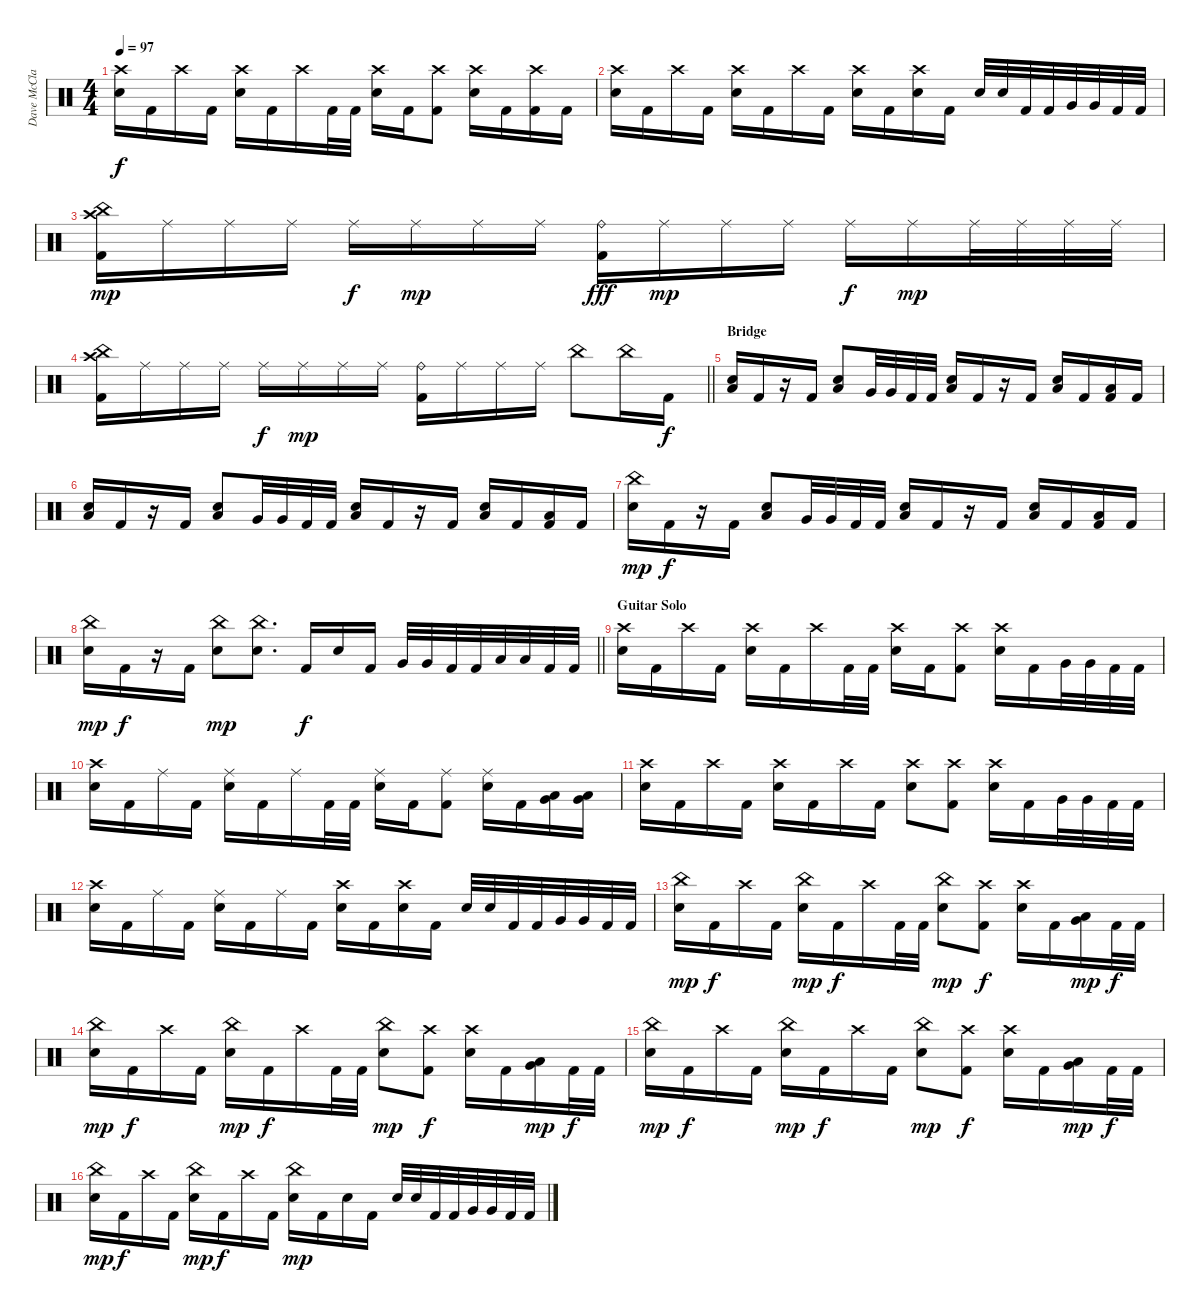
\track ("Dave McClain" "Dave McCla") {instrument percussion}
\staff {score}
\articulation defaults
\ts (4 4)
\tempo 97
\clef neutral
\ks c
("Crash high (hit)" "Snare (hit) 2").16{dy f} "Kick (hit) 2".16 "Crash high (hit)".16 "Kick (hit) 2".16 ("Crash high (hit)" "Snare (hit) 2").16 "Kick (hit) 2".16 "Crash high (hit)".16 "Kick (hit) 2".32 "Kick (hit) 2".32 ("Crash high (hit)" "Snare (hit) 2").16 "Kick (hit) 2".16 ("Crash high (hit)" "Kick (hit) 2").8 ("Crash high (hit)" "Snare (hit) 2").16 "Kick (hit) 2".16 ("Crash high (hit)" "Kick (hit) 2").16 "Kick (hit) 2".16 |
("Crash high (hit)" "Snare (hit) 2").16 "Kick (hit) 2".16 "Crash high (hit)".16 "Kick (hit) 2".16 ("Crash high (hit)" "Snare (hit) 2").16 "Kick (hit) 2".16 "Crash high (hit)".16 "Kick (hit) 2".16 ("Crash high (hit)" "Snare (hit) 2").16 "Kick (hit) 2".16 ("Crash high (hit)" "Snare (hit) 2").16 "Kick (hit) 2".16 "Snare (hit) 2".32 "Snare (hit) 2".32 "Kick (hit) 2".32 "Kick (hit) 2".32 "Very Low Tom (hit)".32 "Very Low Tom (hit)".32 "Kick (hit) 2".32 "Kick (hit) 2".32 |
("China (hit)" "Crash high (hit)" "Kick (hit) 2").16{dy mp} "Ride (middle)".16 "Ride (middle)".16 "Ride (middle)".16 "Ride (middle)".16{dy f} "Ride (middle)".16{dy mp} "Ride (middle)".16 "Ride (middle)".16 ("Ride (bell)" "Kick (hit) 2").16{dy fff} "Ride (middle)".16{dy mp} "Ride (middle)".16 "Ride (middle)".16 "Ride (middle)".16{dy f} "Ride (middle)".16{dy mp} "Ride (middle)".32 "Ride (middle)".32 "Ride (middle)".32 "Ride (middle)".32 |
\barLineRight lightlight
("China (hit)" "Crash high (hit)" "Kick (hit) 2").16 "Ride (middle)".16 "Ride (middle)".16 "Ride (middle)".16 "Ride (middle)".16{dy f} "Ride (middle)".16{dy mp} "Ride (middle)".16 "Ride (middle)".16 ("Ride (bell)" "Kick (hit) 2").16 "Ride (middle)".16 "Ride (middle)".16 "Ride (middle)".16 "China (hit)".8 "China (hit)".16 "Kick (hit) 2".16{dy f} |
\section ("" "Bridge")
("Snare (hit) 2" "Low Floor Tom (hit)").16 "Kick (hit) 2".16 r.16 "Kick (hit) 2".16 ("Snare (hit) 2" "Low Floor Tom (hit)").8 "Very Low Tom (hit)".32 "Very Low Tom (hit)".32 "Kick (hit) 2".32 "Kick (hit) 2".32 ("Snare (hit) 2" "Low Floor Tom (hit)").16 "Kick (hit) 2".16 r.16 "Kick (hit) 2".16 ("Snare (hit) 2" "Low Floor Tom (hit)").16 "Kick (hit) 2".16 ("Low Floor Tom (hit)" "Kick (hit) 2").16 "Kick (hit) 2".16 |
("Snare (hit) 2" "Low Floor Tom (hit)").16 "Kick (hit) 2".16 r.16 "Kick (hit) 2".16 ("Snare (hit) 2" "Low Floor Tom (hit)").8 "Very Low Tom (hit)".32 "Very Low Tom (hit)".32 "Kick (hit) 2".32 "Kick (hit) 2".32 ("Snare (hit) 2" "Low Floor Tom (hit)").16 "Kick (hit) 2".16 r.16 "Kick (hit) 2".16 ("Snare (hit) 2" "Low Floor Tom (hit)").16 "Kick (hit) 2".16 ("Low Floor Tom (hit)" "Kick (hit) 2").16 "Kick (hit) 2".16 |
("China (hit)" "Snare (hit) 2").16{dy mp} "Kick (hit) 2".16{dy f} r.16 "Kick (hit) 2".16 ("Snare (hit) 2" "Low Floor Tom (hit)").8 "Very Low Tom (hit)".32 "Very Low Tom (hit)".32 "Kick (hit) 2".32 "Kick (hit) 2".32 ("Snare (hit) 2" "Low Floor Tom (hit)").16 "Kick (hit) 2".16 r.16 "Kick (hit) 2".16 ("Snare (hit) 2" "Low Floor Tom (hit)").16 "Kick (hit) 2".16 ("Low Floor Tom (hit)" "Kick (hit) 2").16 "Kick (hit) 2".16 |
\barLineRight lightlight
("China (hit)" "Snare (hit) 2").16{dy mp} "Kick (hit) 2".16{dy f} r.16 "Kick (hit) 2".16 ("China (hit)" "Snare (hit) 2").8{dy mp} ("China (hit)" "Snare (hit) 2").8{d} "Kick (hit) 2".16{dy f} "Snare (hit) 2".16 "Kick (hit) 2".16 "Very Low Tom (hit)".32 "Very Low Tom (hit)".32 "Kick (hit) 2".32 "Kick (hit) 2".32 "Low Floor Tom (hit)".32 "Low Floor Tom (hit)".32 "Kick (hit) 2".32 "Kick (hit) 2".32 |
\section ("" "Guitar Solo")
("Crash high (hit)" "Snare (hit) 2").16 "Kick (hit) 2".16 "Crash high (hit)".16 "Kick (hit) 2".16 ("Crash high (hit)" "Snare (hit) 2").16 "Kick (hit) 2".16 "Crash high (hit)".16 "Kick (hit) 2".32 "Kick (hit) 2".32 ("Crash high (hit)" "Snare (hit) 2").16 "Kick (hit) 2".16 ("Crash high (hit)" "Kick (hit) 2").8 ("Crash high (hit)" "Snare (hit) 2").16 "Kick (hit) 2".16 "Very Low Tom (hit)".32 "Very Low Tom (hit)".32 "Kick (hit) 2".32 "Kick (hit) 2".32 |
("Crash high (hit)" "Snare (hit) 2").16 "Kick (hit) 2".16 "Ride (middle)".16 "Kick (hit) 2".16 ("Ride (middle)" "Snare (hit) 2").16 "Kick (hit) 2".16 "Ride (middle)".16 "Kick (hit) 2".32 "Kick (hit) 2".32 ("Ride (middle)" "Snare (hit) 2").16 "Kick (hit) 2".16 ("Ride (middle)" "Kick (hit) 2").8 ("Ride (middle)" "Snare (hit) 2").16 "Kick (hit) 2".16 ("Very Low Tom (hit)" "Low Floor Tom (hit)").16 ("Very Low Tom (hit)" "Low Floor Tom (hit)").16 |
("Crash high (hit)" "Snare (hit) 2").16 "Kick (hit) 2".16 "Crash high (hit)".16 "Kick (hit) 2".16 ("Crash high (hit)" "Snare (hit) 2").16 "Kick (hit) 2".16 "Crash high (hit)".16 "Kick (hit) 2".16 ("Crash high (hit)" "Snare (hit) 2").8 ("Crash high (hit)" "Kick (hit) 2").8 ("Crash high (hit)" "Snare (hit) 2").16 "Kick (hit) 2".16 "Very Low Tom (hit)".32 "Very Low Tom (hit)".32 "Kick (hit) 2".32 "Kick (hit) 2".32 |
("Crash high (hit)" "Snare (hit) 2").16 "Kick (hit) 2".16 "Ride (middle)".16 "Kick (hit) 2".16 ("Ride (middle)" "Snare (hit) 2").16 "Kick (hit) 2".16 "Ride (middle)".16 "Kick (hit) 2".16 ("Crash high (hit)" "Snare (hit) 2").16 "Kick (hit) 2".16 ("Crash high (hit)" "Snare (hit) 2").16 "Kick (hit) 2".16 "Snare (hit) 2".32 "Snare (hit) 2".32 "Kick (hit) 2".32 "Kick (hit) 2".32 "Very Low Tom (hit)".32 "Very Low Tom (hit)".32 "Kick (hit) 2".32 "Kick (hit) 2".32 |
("China (hit)" "Snare (hit) 2").16{dy mp} "Kick (hit) 2".16{dy f} "Crash high (hit)".16 "Kick (hit) 2".16 ("China (hit)" "Snare (hit) 2").16{dy mp} "Kick (hit) 2".16{dy f} "Crash high (hit)".16 "Kick (hit) 2".32 "Kick (hit) 2".32 ("China (hit)" "Snare (hit) 2").8{dy mp} ("Crash high (hit)" "Kick (hit) 2").8{dy f} ("Crash high (hit)" "Snare (hit) 2").16 "Kick (hit) 2".16 ("Very Low Tom (hit)" "Low Floor Tom (hit)").16{dy mp} "Kick (hit) 2".32{dy f} "Kick (hit) 2".32 |
("China (hit)" "Snare (hit) 2").16{dy mp} "Kick (hit) 2".16{dy f} "Crash high (hit)".16 "Kick (hit) 2".16 ("China (hit)" "Snare (hit) 2").16{dy mp} "Kick (hit) 2".16{dy f} "Crash high (hit)".16 "Kick (hit) 2".32 "Kick (hit) 2".32 ("China (hit)" "Snare (hit) 2").8{dy mp} ("Crash high (hit)" "Kick (hit) 2").8{dy f} ("Crash high (hit)" "Snare (hit) 2").16 "Kick (hit) 2".16 ("Very Low Tom (hit)" "Low Floor Tom (hit)").16{dy mp} "Kick (hit) 2".32{dy f} "Kick (hit) 2".32 |
("China (hit)" "Snare (hit) 2").16{dy mp} "Kick (hit) 2".16{dy f} "Crash high (hit)".16 "Kick (hit) 2".16 ("China (hit)" "Snare (hit) 2").16{dy mp} "Kick (hit) 2".16{dy f} "Crash high (hit)".16 "Kick (hit) 2".16 ("China (hit)" "Snare (hit) 2").8{dy mp} ("Crash high (hit)" "Kick (hit) 2").8{dy f} ("Crash high (hit)" "Snare (hit) 2").16 "Kick (hit) 2".16 ("Very Low Tom (hit)" "Low Floor Tom (hit)").16{dy mp} "Kick (hit) 2".32{dy f} "Kick (hit) 2".32 |
("China (hit)" "Snare (hit) 2").16{dy mp} "Kick (hit) 2".16{dy f} "Crash high (hit)".16 "Kick (hit) 2".16 ("China (hit)" "Snare (hit) 2").16{dy mp} "Kick (hit) 2".16{dy f} "Crash high (hit)".16 "Kick (hit) 2".16 ("China (hit)" "Snare (hit) 2").16{dy mp} "Kick (hit) 2".16 "Snare (hit) 2".16 "Kick (hit) 2".16 "Snare (hit) 2".32 "Snare (hit) 2".32 "Kick (hit) 2".32 "Kick (hit) 2".32 "Very Low Tom (hit)".32 "Very Low Tom (hit)".32 "Kick (hit) 2".32 "Kick (hit) 2".32
